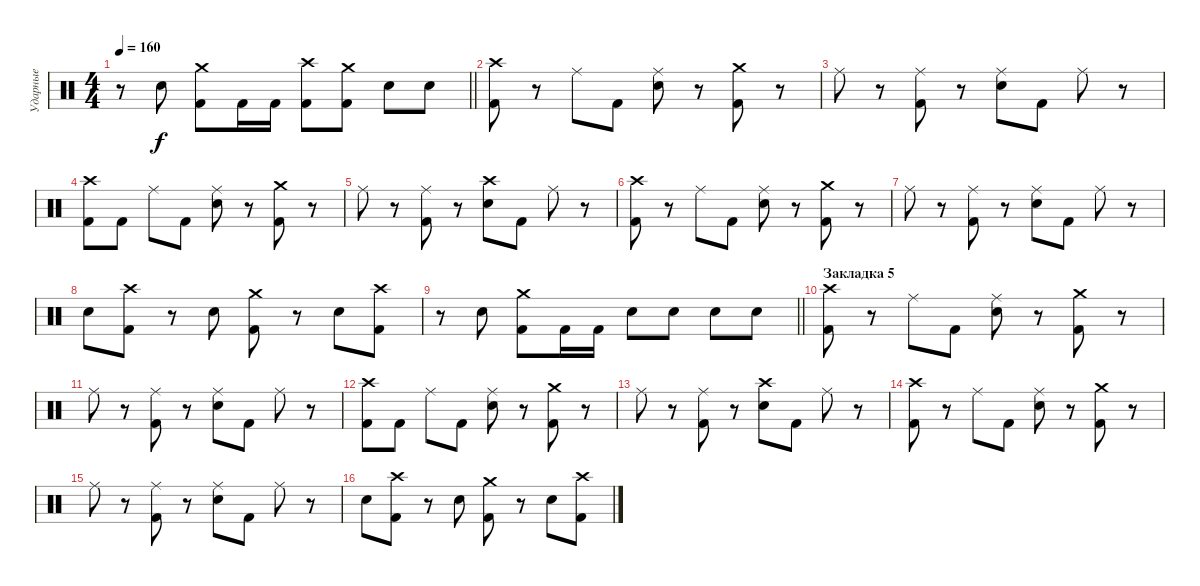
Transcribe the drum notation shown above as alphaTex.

\track ("Ударные" "Ударные") {instrument percussion}
\staff {score}
\articulation defaults
\ts (4 4)
\tempo 160
\clef neutral
\barLineRight lightlight
\ks c
r.8{dy f} "Snare (hit) 2".8 ("Crash medium (hit)" "Kick (hit) 2").8 "Kick (hit) 2".16 "Kick (hit) 2".16 ("Crash high (hit)" "Kick (hit) 2").8 ("Crash medium (hit)" "Kick (hit) 2").8 "Snare (hit) 2".8 "Snare (hit) 2".8 |
("Crash high (hit)" "Kick (hit) 2").8 r.8 "Ride (middle)".8 "Kick (hit) 2".8 ("Ride (middle)" "Snare (hit) 2").8 r.8 ("Crash medium (hit)" "Kick (hit) 2").8 r.8 |
"Ride (middle)".8 r.8 ("Ride (middle)" "Kick (hit) 2").8 r.8 ("Ride (middle)" "Snare (hit) 2").8 "Kick (hit) 2".8 "Ride (middle)".8 r.8 |
("Crash high (hit)" "Kick (hit) 2").8 "Kick (hit) 2".8 "Ride (middle)".8 "Kick (hit) 2".8 ("Ride (middle)" "Snare (hit) 2").8 r.8 ("Crash medium (hit)" "Kick (hit) 2").8 r.8 |
"Ride (middle)".8 r.8 ("Ride (middle)" "Kick (hit) 2").8 r.8 ("Crash high (hit)" "Snare (hit) 2").8 "Kick (hit) 2".8 "Ride (middle)".8 r.8 |
("Crash high (hit)" "Kick (hit) 2").8 r.8 "Ride (middle)".8 "Kick (hit) 2".8 ("Ride (middle)" "Snare (hit) 2").8 r.8 ("Crash medium (hit)" "Kick (hit) 2").8 r.8 |
"Ride (middle)".8 r.8 ("Ride (middle)" "Kick (hit) 2").8 r.8 ("Ride (middle)" "Snare (hit) 2").8 "Kick (hit) 2".8 "Ride (middle)".8 r.8 |
"Snare (hit) 2".8 ("Crash high (hit)" "Kick (hit) 2").8 r.8 "Snare (hit) 2".8 ("Crash medium (hit)" "Kick (hit) 2").8 r.8 "Snare (hit) 2".8 ("Crash high (hit)" "Kick (hit) 2").8 |
\barLineRight lightlight
r.8 "Snare (hit) 2".8 ("Crash medium (hit)" "Kick (hit) 2").8 "Kick (hit) 2".16 "Kick (hit) 2".16 "Snare (hit) 2".8 "Snare (hit) 2".8 "Snare (hit) 2".8 "Snare (hit) 2".8 |
\section ("" "Закладка 5")
("Crash high (hit)" "Kick (hit) 2").8 r.8 "Ride (middle)".8 "Kick (hit) 2".8 ("Ride (middle)" "Snare (hit) 2").8 r.8 ("Crash medium (hit)" "Kick (hit) 2").8 r.8 |
"Ride (middle)".8 r.8 ("Ride (middle)" "Kick (hit) 2").8 r.8 ("Ride (middle)" "Snare (hit) 2").8 "Kick (hit) 2".8 "Ride (middle)".8 r.8 |
("Crash high (hit)" "Kick (hit) 2").8 "Kick (hit) 2".8 "Ride (middle)".8 "Kick (hit) 2".8 ("Ride (middle)" "Snare (hit) 2").8 r.8 ("Crash medium (hit)" "Kick (hit) 2").8 r.8 |
"Ride (middle)".8 r.8 ("Ride (middle)" "Kick (hit) 2").8 r.8 ("Crash high (hit)" "Snare (hit) 2").8 "Kick (hit) 2".8 "Ride (middle)".8 r.8 |
("Crash high (hit)" "Kick (hit) 2").8 r.8 "Ride (middle)".8 "Kick (hit) 2".8 ("Ride (middle)" "Snare (hit) 2").8 r.8 ("Crash medium (hit)" "Kick (hit) 2").8 r.8 |
"Ride (middle)".8 r.8 ("Ride (middle)" "Kick (hit) 2").8 r.8 ("Ride (middle)" "Snare (hit) 2").8 "Kick (hit) 2".8 "Ride (middle)".8 r.8 |
"Snare (hit) 2".8 ("Crash high (hit)" "Kick (hit) 2").8 r.8 "Snare (hit) 2".8 ("Crash medium (hit)" "Kick (hit) 2").8 r.8 "Snare (hit) 2".8 ("Crash high (hit)" "Kick (hit) 2").8
